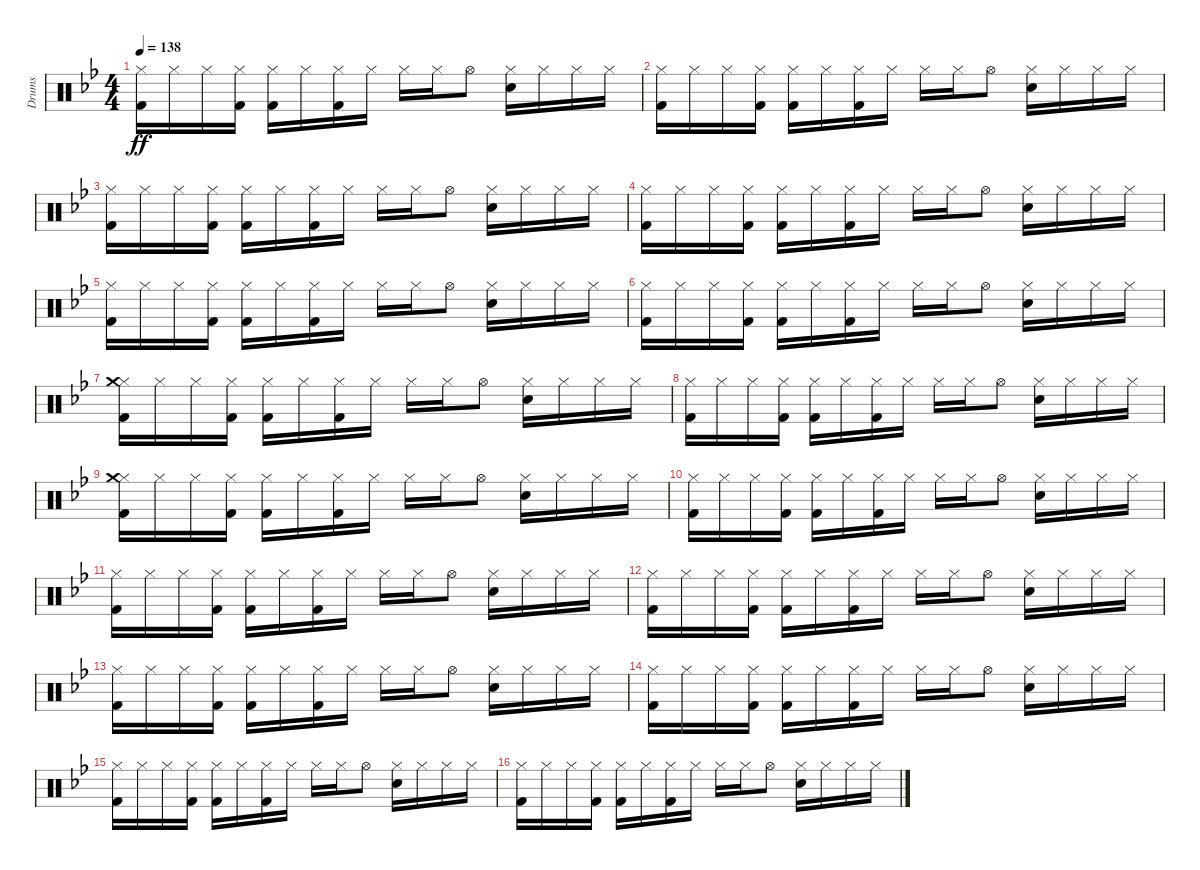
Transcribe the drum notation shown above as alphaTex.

\track ("Drums" "Drums") {instrument percussion}
\staff {score}
\articulation defaults
\ts (4 4)
\tempo 138
\clef neutral
\ks bb
("Kick (hit) 2" "Hi-Hat (closed)").16{dy ff} "Hi-Hat (closed)".16 "Hi-Hat (closed)".16 ("Kick (hit) 2" "Hi-Hat (closed)").16 ("Kick (hit) 2" "Hi-Hat (closed)").16 "Hi-Hat (closed)".16 ("Kick (hit) 2" "Hi-Hat (closed)").16 "Hi-Hat (closed)".16 "Hi-Hat (closed)".16 "Hi-Hat (closed)".16 "Hi-Hat (open)".8 ("Snare (hit) 2" "Hi-Hat (closed)").16 "Hi-Hat (closed)".16 "Hi-Hat (closed)".16 "Hi-Hat (closed)".16 |
("Kick (hit) 2" "Hi-Hat (closed)").16 "Hi-Hat (closed)".16 "Hi-Hat (closed)".16 ("Kick (hit) 2" "Hi-Hat (closed)").16 ("Kick (hit) 2" "Hi-Hat (closed)").16 "Hi-Hat (closed)".16 ("Kick (hit) 2" "Hi-Hat (closed)").16 "Hi-Hat (closed)".16 "Hi-Hat (closed)".16 "Hi-Hat (closed)".16 "Hi-Hat (open)".8 ("Snare (hit) 2" "Hi-Hat (closed)").16 "Hi-Hat (closed)".16 "Hi-Hat (closed)".16 "Hi-Hat (closed)".16 |
("Kick (hit) 2" "Hi-Hat (closed)").16 "Hi-Hat (closed)".16 "Hi-Hat (closed)".16 ("Kick (hit) 2" "Hi-Hat (closed)").16 ("Kick (hit) 2" "Hi-Hat (closed)").16 "Hi-Hat (closed)".16 ("Kick (hit) 2" "Hi-Hat (closed)").16 "Hi-Hat (closed)".16 "Hi-Hat (closed)".16 "Hi-Hat (closed)".16 "Hi-Hat (open)".8 ("Snare (hit) 2" "Hi-Hat (closed)").16 "Hi-Hat (closed)".16 "Hi-Hat (closed)".16 "Hi-Hat (closed)".16 |
("Kick (hit) 2" "Hi-Hat (closed)").16 "Hi-Hat (closed)".16 "Hi-Hat (closed)".16 ("Kick (hit) 2" "Hi-Hat (closed)").16 ("Kick (hit) 2" "Hi-Hat (closed)").16 "Hi-Hat (closed)".16 ("Kick (hit) 2" "Hi-Hat (closed)").16 "Hi-Hat (closed)".16 "Hi-Hat (closed)".16 "Hi-Hat (closed)".16 "Hi-Hat (open)".8 ("Snare (hit) 2" "Hi-Hat (closed)").16 "Hi-Hat (closed)".16 "Hi-Hat (closed)".16 "Hi-Hat (closed)".16 |
("Kick (hit) 2" "Hi-Hat (closed)").16 "Hi-Hat (closed)".16 "Hi-Hat (closed)".16 ("Kick (hit) 2" "Hi-Hat (closed)").16 ("Kick (hit) 2" "Hi-Hat (closed)").16 "Hi-Hat (closed)".16 ("Kick (hit) 2" "Hi-Hat (closed)").16 "Hi-Hat (closed)".16 "Hi-Hat (closed)".16 "Hi-Hat (closed)".16 "Hi-Hat (open)".8 ("Snare (hit) 2" "Hi-Hat (closed)").16 "Hi-Hat (closed)".16 "Hi-Hat (closed)".16 "Hi-Hat (closed)".16 |
("Kick (hit) 2" "Hi-Hat (closed)").16 "Hi-Hat (closed)".16 "Hi-Hat (closed)".16 ("Kick (hit) 2" "Hi-Hat (closed)").16 ("Kick (hit) 2" "Hi-Hat (closed)").16 "Hi-Hat (closed)".16 ("Kick (hit) 2" "Hi-Hat (closed)").16 "Hi-Hat (closed)".16 "Hi-Hat (closed)".16 "Hi-Hat (closed)".16 "Hi-Hat (open)".8 ("Snare (hit) 2" "Hi-Hat (closed)").16 "Hi-Hat (closed)".16 "Hi-Hat (closed)".16 "Hi-Hat (closed)".16 |
("Kick (hit) 2" "Hi-Hat (closed)" "Crash medium (hit)").16 "Hi-Hat (closed)".16 "Hi-Hat (closed)".16 ("Kick (hit) 2" "Hi-Hat (closed)").16 ("Kick (hit) 2" "Hi-Hat (closed)").16 "Hi-Hat (closed)".16 ("Kick (hit) 2" "Hi-Hat (closed)").16 "Hi-Hat (closed)".16 "Hi-Hat (closed)".16 "Hi-Hat (closed)".16 "Hi-Hat (open)".8 ("Snare (hit) 2" "Hi-Hat (closed)").16 "Hi-Hat (closed)".16 "Hi-Hat (closed)".16 "Hi-Hat (closed)".16 |
("Kick (hit) 2" "Hi-Hat (closed)").16 "Hi-Hat (closed)".16 "Hi-Hat (closed)".16 ("Kick (hit) 2" "Hi-Hat (closed)").16 ("Kick (hit) 2" "Hi-Hat (closed)").16 "Hi-Hat (closed)".16 ("Kick (hit) 2" "Hi-Hat (closed)").16 "Hi-Hat (closed)".16 "Hi-Hat (closed)".16 "Hi-Hat (closed)".16 "Hi-Hat (open)".8 ("Snare (hit) 2" "Hi-Hat (closed)").16 "Hi-Hat (closed)".16 "Hi-Hat (closed)".16 "Hi-Hat (closed)".16 |
("Kick (hit) 2" "Hi-Hat (closed)" "Crash medium (hit)").16 "Hi-Hat (closed)".16 "Hi-Hat (closed)".16 ("Kick (hit) 2" "Hi-Hat (closed)").16 ("Kick (hit) 2" "Hi-Hat (closed)").16 "Hi-Hat (closed)".16 ("Kick (hit) 2" "Hi-Hat (closed)").16 "Hi-Hat (closed)".16 "Hi-Hat (closed)".16 "Hi-Hat (closed)".16 "Hi-Hat (open)".8 ("Snare (hit) 2" "Hi-Hat (closed)").16 "Hi-Hat (closed)".16 "Hi-Hat (closed)".16 "Hi-Hat (closed)".16 |
("Kick (hit) 2" "Hi-Hat (closed)").16 "Hi-Hat (closed)".16 "Hi-Hat (closed)".16 ("Kick (hit) 2" "Hi-Hat (closed)").16 ("Kick (hit) 2" "Hi-Hat (closed)").16 "Hi-Hat (closed)".16 ("Kick (hit) 2" "Hi-Hat (closed)").16 "Hi-Hat (closed)".16 "Hi-Hat (closed)".16 "Hi-Hat (closed)".16 "Hi-Hat (open)".8 ("Snare (hit) 2" "Hi-Hat (closed)").16 "Hi-Hat (closed)".16 "Hi-Hat (closed)".16 "Hi-Hat (closed)".16 |
("Kick (hit) 2" "Hi-Hat (closed)").16 "Hi-Hat (closed)".16 "Hi-Hat (closed)".16 ("Kick (hit) 2" "Hi-Hat (closed)").16 ("Kick (hit) 2" "Hi-Hat (closed)").16 "Hi-Hat (closed)".16 ("Kick (hit) 2" "Hi-Hat (closed)").16 "Hi-Hat (closed)".16 "Hi-Hat (closed)".16 "Hi-Hat (closed)".16 "Hi-Hat (open)".8 ("Snare (hit) 2" "Hi-Hat (closed)").16 "Hi-Hat (closed)".16 "Hi-Hat (closed)".16 "Hi-Hat (closed)".16 |
("Kick (hit) 2" "Hi-Hat (closed)").16 "Hi-Hat (closed)".16 "Hi-Hat (closed)".16 ("Kick (hit) 2" "Hi-Hat (closed)").16 ("Kick (hit) 2" "Hi-Hat (closed)").16 "Hi-Hat (closed)".16 ("Kick (hit) 2" "Hi-Hat (closed)").16 "Hi-Hat (closed)".16 "Hi-Hat (closed)".16 "Hi-Hat (closed)".16 "Hi-Hat (open)".8 ("Snare (hit) 2" "Hi-Hat (closed)").16 "Hi-Hat (closed)".16 "Hi-Hat (closed)".16 "Hi-Hat (closed)".16 |
("Kick (hit) 2" "Hi-Hat (closed)").16 "Hi-Hat (closed)".16 "Hi-Hat (closed)".16 ("Kick (hit) 2" "Hi-Hat (closed)").16 ("Kick (hit) 2" "Hi-Hat (closed)").16 "Hi-Hat (closed)".16 ("Kick (hit) 2" "Hi-Hat (closed)").16 "Hi-Hat (closed)".16 "Hi-Hat (closed)".16 "Hi-Hat (closed)".16 "Hi-Hat (open)".8 ("Snare (hit) 2" "Hi-Hat (closed)").16 "Hi-Hat (closed)".16 "Hi-Hat (closed)".16 "Hi-Hat (closed)".16 |
("Kick (hit) 2" "Hi-Hat (closed)").16 "Hi-Hat (closed)".16 "Hi-Hat (closed)".16 ("Kick (hit) 2" "Hi-Hat (closed)").16 ("Kick (hit) 2" "Hi-Hat (closed)").16 "Hi-Hat (closed)".16 ("Kick (hit) 2" "Hi-Hat (closed)").16 "Hi-Hat (closed)".16 "Hi-Hat (closed)".16 "Hi-Hat (closed)".16 "Hi-Hat (open)".8 ("Snare (hit) 2" "Hi-Hat (closed)").16 "Hi-Hat (closed)".16 "Hi-Hat (closed)".16 "Hi-Hat (closed)".16 |
("Kick (hit) 2" "Hi-Hat (closed)").16 "Hi-Hat (closed)".16 "Hi-Hat (closed)".16 ("Kick (hit) 2" "Hi-Hat (closed)").16 ("Kick (hit) 2" "Hi-Hat (closed)").16 "Hi-Hat (closed)".16 ("Kick (hit) 2" "Hi-Hat (closed)").16 "Hi-Hat (closed)".16 "Hi-Hat (closed)".16 "Hi-Hat (closed)".16 "Hi-Hat (open)".8 ("Snare (hit) 2" "Hi-Hat (closed)").16 "Hi-Hat (closed)".16 "Hi-Hat (closed)".16 "Hi-Hat (closed)".16 |
("Kick (hit) 2" "Hi-Hat (closed)").16 "Hi-Hat (closed)".16 "Hi-Hat (closed)".16 ("Kick (hit) 2" "Hi-Hat (closed)").16 ("Kick (hit) 2" "Hi-Hat (closed)").16 "Hi-Hat (closed)".16 ("Kick (hit) 2" "Hi-Hat (closed)").16 "Hi-Hat (closed)".16 "Hi-Hat (closed)".16 "Hi-Hat (closed)".16 "Hi-Hat (open)".8 ("Snare (hit) 2" "Hi-Hat (closed)").16 "Hi-Hat (closed)".16 "Hi-Hat (closed)".16 "Hi-Hat (closed)".16
